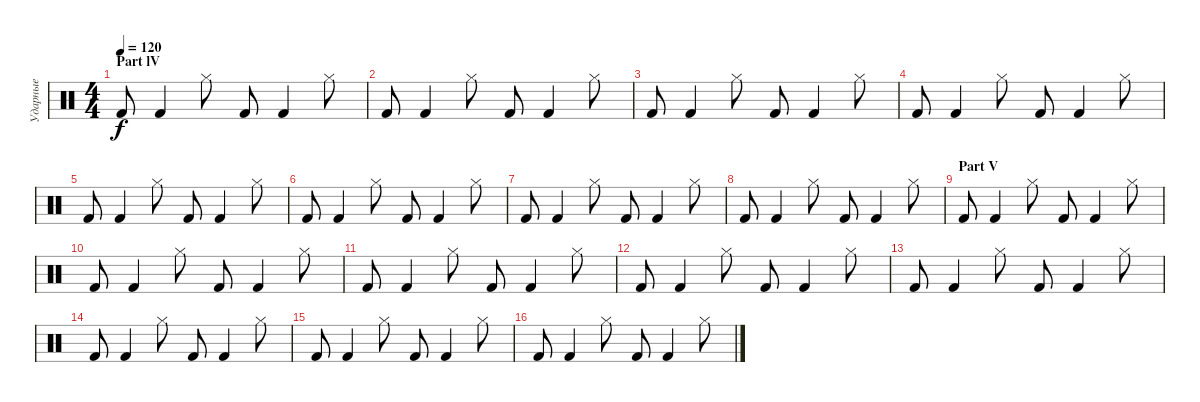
\track ("Ударные" "Ударные") {instrument percussion}
\staff {score}
\articulation defaults
\ts (4 4)
\section ("" "Part lV")
\tempo 120
\clef neutral
\ks c "Kick (hit) 2".8{dy f} "Kick (hit) 2".4 "Hi-Hat (closed)".8 "Kick (hit) 2".8 "Kick (hit) 2".4 "Hi-Hat (closed)".8
|
"Kick (hit) 2".8 "Kick (hit) 2".4 "Hi-Hat (closed)".8 "Kick (hit) 2".8 "Kick (hit) 2".4 "Hi-Hat (closed)".8 |
"Kick (hit) 2".8 "Kick (hit) 2".4 "Hi-Hat (closed)".8 "Kick (hit) 2".8 "Kick (hit) 2".4 "Hi-Hat (closed)".8 |
"Kick (hit) 2".8 "Kick (hit) 2".4 "Hi-Hat (closed)".8 "Kick (hit) 2".8 "Kick (hit) 2".4 "Hi-Hat (closed)".8 |
"Kick (hit) 2".8 "Kick (hit) 2".4 "Hi-Hat (closed)".8 "Kick (hit) 2".8 "Kick (hit) 2".4 "Hi-Hat (closed)".8 |
"Kick (hit) 2".8 "Kick (hit) 2".4 "Hi-Hat (closed)".8 "Kick (hit) 2".8 "Kick (hit) 2".4 "Hi-Hat (closed)".8 |
"Kick (hit) 2".8 "Kick (hit) 2".4 "Hi-Hat (closed)".8 "Kick (hit) 2".8 "Kick (hit) 2".4 "Hi-Hat (closed)".8 |
"Kick (hit) 2".8 "Kick (hit) 2".4 "Hi-Hat (closed)".8 "Kick (hit) 2".8 "Kick (hit) 2".4 "Hi-Hat (closed)".8 |
\section ("" "Part V")
"Kick (hit) 2".8 "Kick (hit) 2".4 "Hi-Hat (closed)".8 "Kick (hit) 2".8 "Kick (hit) 2".4 "Hi-Hat (closed)".8 |
"Kick (hit) 2".8 "Kick (hit) 2".4 "Hi-Hat (closed)".8 "Kick (hit) 2".8 "Kick (hit) 2".4 "Hi-Hat (closed)".8 |
"Kick (hit) 2".8 "Kick (hit) 2".4 "Hi-Hat (closed)".8 "Kick (hit) 2".8 "Kick (hit) 2".4 "Hi-Hat (closed)".8 |
"Kick (hit) 2".8 "Kick (hit) 2".4 "Hi-Hat (closed)".8 "Kick (hit) 2".8 "Kick (hit) 2".4 "Hi-Hat (closed)".8 |
"Kick (hit) 2".8 "Kick (hit) 2".4 "Hi-Hat (closed)".8 "Kick (hit) 2".8 "Kick (hit) 2".4 "Hi-Hat (closed)".8 |
"Kick (hit) 2".8 "Kick (hit) 2".4 "Hi-Hat (closed)".8 "Kick (hit) 2".8 "Kick (hit) 2".4 "Hi-Hat (closed)".8 |
"Kick (hit) 2".8 "Kick (hit) 2".4 "Hi-Hat (closed)".8 "Kick (hit) 2".8 "Kick (hit) 2".4 "Hi-Hat (closed)".8 |
"Kick (hit) 2".8 "Kick (hit) 2".4 "Hi-Hat (closed)".8 "Kick (hit) 2".8 "Kick (hit) 2".4 "Hi-Hat (closed)".8
